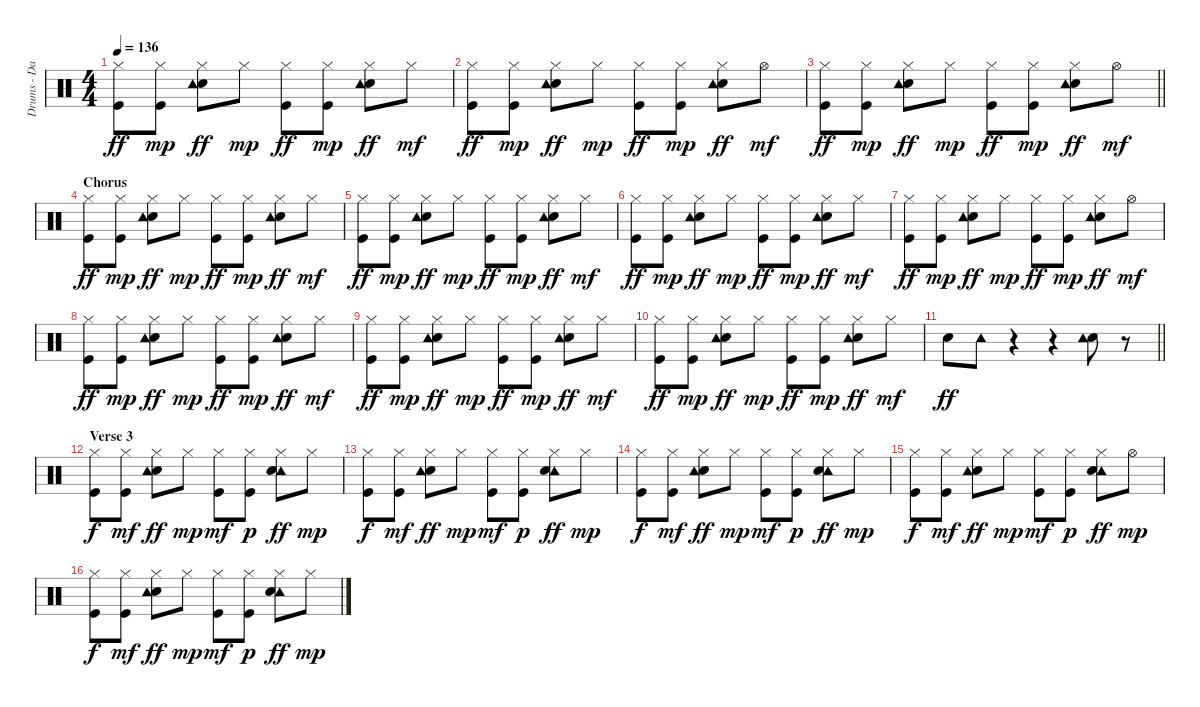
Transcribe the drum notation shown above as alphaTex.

\track ("Drums - Danny Smythe" "Drums - Da") {instrument percussion}
\staff {score}
\articulation defaults
\ts (4 4)
\tempo 136
\clef neutral
\ks c
("Hi-Hat (closed)" "Kick (hit)").8{dy ff} ("Hi-Hat (closed)" "Kick (hit)").8{dy mp} ("Electric Snare (hit)" "Hi-Hat (closed)" "Tambourine (hit)").8{dy ff} "Hi-Hat (closed)".8{dy mp} ("Hi-Hat (closed)" "Kick (hit)").8{dy ff} ("Hi-Hat (closed)" "Kick (hit)").8{dy mp} ("Hi-Hat (closed)" "Electric Snare (hit)" "Tambourine (hit)").8{dy ff} "Hi-Hat (closed)".8{dy mf} |
("Hi-Hat (closed)" "Kick (hit)").8{dy ff} ("Hi-Hat (closed)" "Kick (hit)").8{dy mp} ("Electric Snare (hit)" "Hi-Hat (closed)" "Tambourine (hit)").8{dy ff} "Hi-Hat (closed)".8{dy mp} ("Hi-Hat (closed)" "Kick (hit)").8{dy ff} ("Hi-Hat (closed)" "Kick (hit)").8{dy mp} ("Hi-Hat (closed)" "Electric Snare (hit)" "Tambourine (hit)").8{dy ff} "Hi-Hat (open)".8{dy mf} |
\barLineRight lightlight
("Hi-Hat (closed)" "Kick (hit)").8{dy ff} ("Hi-Hat (closed)" "Kick (hit)").8{dy mp} ("Electric Snare (hit)" "Hi-Hat (closed)" "Tambourine (hit)").8{dy ff} "Hi-Hat (closed)".8{dy mp} ("Hi-Hat (closed)" "Kick (hit)").8{dy ff} ("Hi-Hat (closed)" "Kick (hit)").8{dy mp} ("Hi-Hat (closed)" "Electric Snare (hit)" "Tambourine (hit)").8{dy ff} "Hi-Hat (open)".8{dy mf} |
\section ("" "Chorus")
("Hi-Hat (closed)" "Kick (hit)").8{dy ff} ("Hi-Hat (closed)" "Kick (hit)").8{dy mp} ("Electric Snare (hit)" "Hi-Hat (closed)" "Tambourine (hit)").8{dy ff} "Hi-Hat (closed)".8{dy mp} ("Hi-Hat (closed)" "Kick (hit)").8{dy ff} ("Hi-Hat (closed)" "Kick (hit)").8{dy mp} ("Hi-Hat (closed)" "Electric Snare (hit)" "Tambourine (hit)").8{dy ff} "Hi-Hat (closed)".8{dy mf} |
("Hi-Hat (closed)" "Kick (hit)").8{dy ff} ("Hi-Hat (closed)" "Kick (hit)").8{dy mp} ("Electric Snare (hit)" "Hi-Hat (closed)" "Tambourine (hit)").8{dy ff} "Hi-Hat (closed)".8{dy mp} ("Hi-Hat (closed)" "Kick (hit)").8{dy ff} ("Hi-Hat (closed)" "Kick (hit)").8{dy mp} ("Hi-Hat (closed)" "Electric Snare (hit)" "Tambourine (hit)").8{dy ff} "Hi-Hat (closed)".8{dy mf} |
("Hi-Hat (closed)" "Kick (hit)").8{dy ff} ("Hi-Hat (closed)" "Kick (hit)").8{dy mp} ("Electric Snare (hit)" "Hi-Hat (closed)" "Tambourine (hit)").8{dy ff} "Hi-Hat (closed)".8{dy mp} ("Hi-Hat (closed)" "Kick (hit)").8{dy ff} ("Hi-Hat (closed)" "Kick (hit)").8{dy mp} ("Hi-Hat (closed)" "Electric Snare (hit)" "Tambourine (hit)").8{dy ff} "Hi-Hat (closed)".8{dy mf} |
("Hi-Hat (closed)" "Kick (hit)").8{dy ff} ("Hi-Hat (closed)" "Kick (hit)").8{dy mp} ("Electric Snare (hit)" "Hi-Hat (closed)" "Tambourine (hit)").8{dy ff} "Hi-Hat (closed)".8{dy mp} ("Hi-Hat (closed)" "Kick (hit)").8{dy ff} ("Hi-Hat (closed)" "Kick (hit)").8{dy mp} ("Hi-Hat (closed)" "Electric Snare (hit)" "Tambourine (hit)").8{dy ff} "Hi-Hat (open)".8{dy mf} |
("Hi-Hat (closed)" "Kick (hit)").8{dy ff} ("Hi-Hat (closed)" "Kick (hit)").8{dy mp} ("Electric Snare (hit)" "Hi-Hat (closed)" "Tambourine (hit)").8{dy ff} "Hi-Hat (closed)".8{dy mp} ("Hi-Hat (closed)" "Kick (hit)").8{dy ff} ("Hi-Hat (closed)" "Kick (hit)").8{dy mp} ("Hi-Hat (closed)" "Electric Snare (hit)" "Tambourine (hit)").8{dy ff} "Hi-Hat (closed)".8{dy mf} |
("Hi-Hat (closed)" "Kick (hit)").8{dy ff} ("Hi-Hat (closed)" "Kick (hit)").8{dy mp} ("Electric Snare (hit)" "Hi-Hat (closed)" "Tambourine (hit)").8{dy ff} "Hi-Hat (closed)".8{dy mp} ("Hi-Hat (closed)" "Kick (hit)").8{dy ff} ("Hi-Hat (closed)" "Kick (hit)").8{dy mp} ("Hi-Hat (closed)" "Electric Snare (hit)" "Tambourine (hit)").8{dy ff} "Hi-Hat (closed)".8{dy mf} |
("Hi-Hat (closed)" "Kick (hit)").8{dy ff} ("Hi-Hat (closed)" "Kick (hit)").8{dy mp} ("Electric Snare (hit)" "Hi-Hat (closed)" "Tambourine (hit)").8{dy ff} "Hi-Hat (closed)".8{dy mp} ("Hi-Hat (closed)" "Kick (hit)").8{dy ff} ("Hi-Hat (closed)" "Kick (hit)").8{dy mp} ("Hi-Hat (closed)" "Electric Snare (hit)" "Tambourine (hit)").8{dy ff} "Hi-Hat (closed)".8{dy mf} |
\barLineRight lightlight "Electric Snare (hit)".8{dy ff} "Tambourine (hit)".8
r.4 r.4 ("Electric Snare (hit)" "Tambourine (hit)").8 r.8 |
\section ("" "Verse 3")
("Hi-Hat (closed)" "Kick (hit)").8{dy f} ("Hi-Hat (closed)" "Kick (hit)").8{dy mf} ("Hi-Hat (closed)" "Electric Snare (hit)" "Tambourine (hit)").8{dy ff} "Hi-Hat (closed)".8{dy mp} ("Hi-Hat (closed)" "Kick (hit)").8{dy mf} ("Hi-Hat (closed)" "Kick (hit)").8{dy p} ("Tambourine (hit)" "Hi-Hat (closed)" "Electric Snare (hit)").8{dy ff} "Hi-Hat (closed)".8{dy mp} |
("Hi-Hat (closed)" "Kick (hit)").8{dy f} ("Hi-Hat (closed)" "Kick (hit)").8{dy mf} ("Hi-Hat (closed)" "Electric Snare (hit)" "Tambourine (hit)").8{dy ff} "Hi-Hat (closed)".8{dy mp} ("Hi-Hat (closed)" "Kick (hit)").8{dy mf} ("Hi-Hat (closed)" "Kick (hit)").8{dy p} ("Tambourine (hit)" "Hi-Hat (closed)" "Electric Snare (hit)").8{dy ff} "Hi-Hat (closed)".8{dy mp} |
("Hi-Hat (closed)" "Kick (hit)").8{dy f} ("Hi-Hat (closed)" "Kick (hit)").8{dy mf} ("Hi-Hat (closed)" "Electric Snare (hit)" "Tambourine (hit)").8{dy ff} "Hi-Hat (closed)".8{dy mp} ("Hi-Hat (closed)" "Kick (hit)").8{dy mf} ("Hi-Hat (closed)" "Kick (hit)").8{dy p} ("Tambourine (hit)" "Hi-Hat (closed)" "Electric Snare (hit)").8{dy ff} "Hi-Hat (closed)".8{dy mp} |
("Hi-Hat (closed)" "Kick (hit)").8{dy f} ("Hi-Hat (closed)" "Kick (hit)").8{dy mf} ("Hi-Hat (closed)" "Electric Snare (hit)" "Tambourine (hit)").8{dy ff} "Hi-Hat (closed)".8{dy mp} ("Hi-Hat (closed)" "Kick (hit)").8{dy mf} ("Hi-Hat (closed)" "Kick (hit)").8{dy p} ("Tambourine (hit)" "Hi-Hat (closed)" "Electric Snare (hit)").8{dy ff} "Hi-Hat (open)".8{dy mp} |
("Hi-Hat (closed)" "Kick (hit)").8{dy f} ("Hi-Hat (closed)" "Kick (hit)").8{dy mf} ("Hi-Hat (closed)" "Electric Snare (hit)" "Tambourine (hit)").8{dy ff} "Hi-Hat (closed)".8{dy mp} ("Hi-Hat (closed)" "Kick (hit)").8{dy mf} ("Hi-Hat (closed)" "Kick (hit)").8{dy p} ("Tambourine (hit)" "Hi-Hat (closed)" "Electric Snare (hit)").8{dy ff} "Hi-Hat (closed)".8{dy mp}
